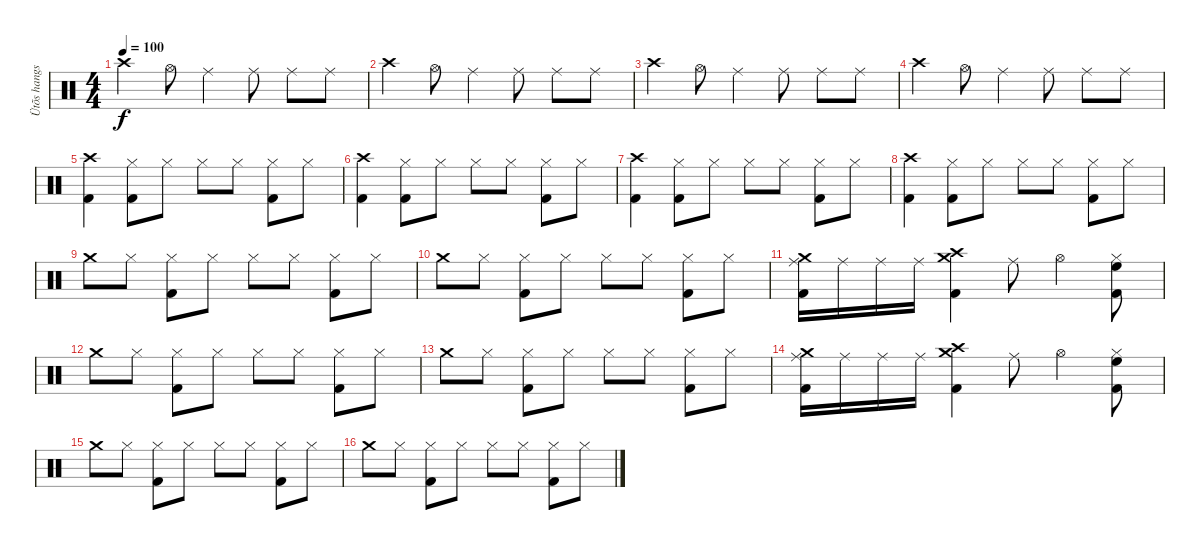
\track ("Ütõs hangszer" "Ütõs hangs") {instrument percussion}
\staff {score}
\articulation defaults
\ts (4 4)
\tempo 100
\clef neutral
\ks c "Crash high (hit)".4{dy f} "Hi-Hat (open)".8 "Ride (middle)".4 "Ride (middle)".8 "Ride (middle)".8 "Ride (middle)".8
|
"Crash high (hit)".4 "Hi-Hat (open)".8 "Ride (middle)".4 "Ride (middle)".8 "Ride (middle)".8 "Ride (middle)".8 |
"Crash high (hit)".4 "Hi-Hat (open)".8 "Ride (middle)".4 "Ride (middle)".8 "Ride (middle)".8 "Ride (middle)".8 |
"Crash high (hit)".4 "Hi-Hat (open)".8 "Ride (middle)".4 "Ride (middle)".8 "Ride (middle)".8 "Ride (middle)".8 |
("Crash high (hit)" "Kick (hit) 2").4 ("Hi-Hat (closed)" "Kick (hit) 2").8 "Hi-Hat (closed)".8 "Hi-Hat (closed)".8 "Hi-Hat (closed)".8 ("Hi-Hat (closed)" "Kick (hit) 2").8 "Hi-Hat (closed)".8 |
("Crash high (hit)" "Kick (hit) 2").4 ("Hi-Hat (closed)" "Kick (hit) 2").8 "Hi-Hat (closed)".8 "Hi-Hat (closed)".8 "Hi-Hat (closed)".8 ("Hi-Hat (closed)" "Kick (hit) 2").8 "Hi-Hat (closed)".8 |
("Crash high (hit)" "Kick (hit) 2").4 ("Hi-Hat (closed)" "Kick (hit) 2").8 "Hi-Hat (closed)".8 "Hi-Hat (closed)".8 "Hi-Hat (closed)".8 ("Hi-Hat (closed)" "Kick (hit) 2").8 "Hi-Hat (closed)".8 |
("Crash high (hit)" "Kick (hit) 2").4 ("Hi-Hat (closed)" "Kick (hit) 2").8 "Hi-Hat (closed)".8 "Hi-Hat (closed)".8 "Hi-Hat (closed)".8 ("Hi-Hat (closed)" "Kick (hit) 2").8 "Hi-Hat (closed)".8 |
"Crash medium (hit)".8 "Hi-Hat (closed)".8 ("Hi-Hat (closed)" "Kick (hit) 2").8 "Hi-Hat (closed)".8 "Hi-Hat (closed)".8 "Hi-Hat (closed)".8 ("Hi-Hat (closed)" "Kick (hit) 2").8 "Hi-Hat (closed)".8 |
"Crash medium (hit)".8 "Hi-Hat (closed)".8 ("Hi-Hat (closed)" "Kick (hit) 2").8 "Hi-Hat (closed)".8 "Hi-Hat (closed)".8 "Hi-Hat (closed)".8 ("Hi-Hat (closed)" "Kick (hit) 2").8 "Hi-Hat (closed)".8 |
("Crash medium (hit)" "Ride (middle)" "Kick (hit) 2").16 "Ride (middle)".16 "Ride (middle)".16 "Ride (middle)".16 ("Crash high (hit)" "Crash medium (hit)" "Kick (hit) 2").4 "Ride (middle)".8 "Hi-Hat (open)".4 ("Hi-Hat (closed)" "High Floor Tom (hit)" "Kick (hit) 2").8 |
"Crash medium (hit)".8 "Hi-Hat (closed)".8 ("Hi-Hat (closed)" "Kick (hit) 2").8 "Hi-Hat (closed)".8 "Hi-Hat (closed)".8 "Hi-Hat (closed)".8 ("Hi-Hat (closed)" "Kick (hit) 2").8 "Hi-Hat (closed)".8 |
"Crash medium (hit)".8 "Hi-Hat (closed)".8 ("Hi-Hat (closed)" "Kick (hit) 2").8 "Hi-Hat (closed)".8 "Hi-Hat (closed)".8 "Hi-Hat (closed)".8 ("Hi-Hat (closed)" "Kick (hit) 2").8 "Hi-Hat (closed)".8 |
("Crash medium (hit)" "Ride (middle)" "Kick (hit) 2").16 "Ride (middle)".16 "Ride (middle)".16 "Ride (middle)".16 ("Crash high (hit)" "Crash medium (hit)" "Kick (hit) 2").4 "Ride (middle)".8 "Hi-Hat (open)".4 ("Hi-Hat (closed)" "High Floor Tom (hit)" "Kick (hit) 2").8 |
"Crash medium (hit)".8 "Hi-Hat (closed)".8 ("Hi-Hat (closed)" "Kick (hit) 2").8 "Hi-Hat (closed)".8 "Hi-Hat (closed)".8 "Hi-Hat (closed)".8 ("Hi-Hat (closed)" "Kick (hit) 2").8 "Hi-Hat (closed)".8 |
"Crash medium (hit)".8 "Hi-Hat (closed)".8 ("Hi-Hat (closed)" "Kick (hit) 2").8 "Hi-Hat (closed)".8 "Hi-Hat (closed)".8 "Hi-Hat (closed)".8 ("Hi-Hat (closed)" "Kick (hit) 2").8 "Hi-Hat (closed)".8
